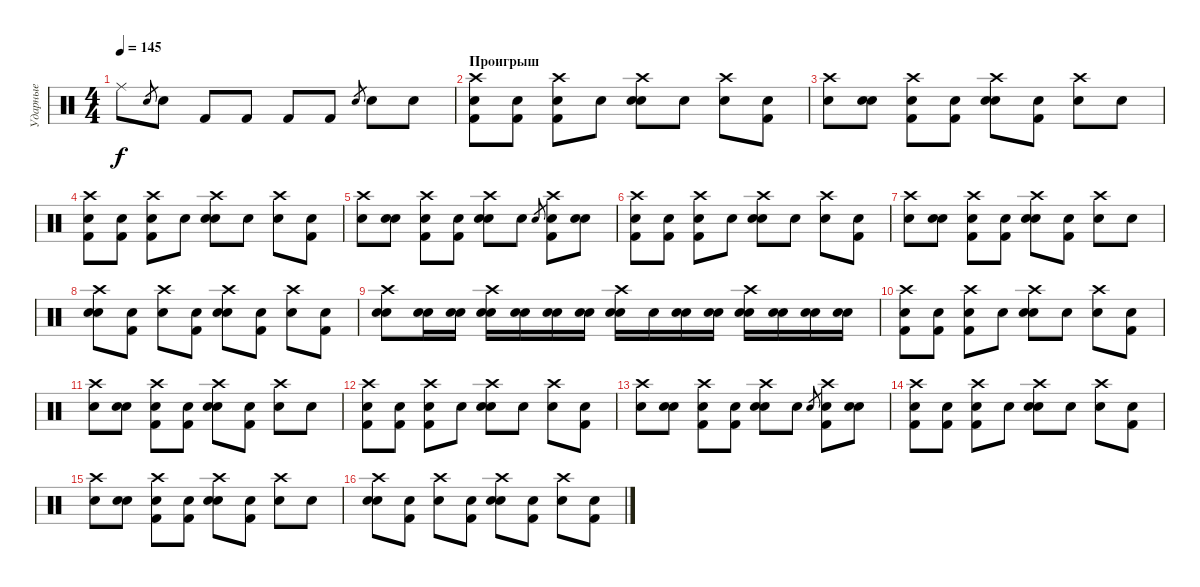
\track ("Ударные" "Ударные") {instrument percussion}
\staff {score}
\articulation defaults
\ts (4 4)
\tempo 145
\clef neutral
\ks c "Ride (middle)"{x}.8{dy f} "Snare (hit) 2".8{gr} "Snare (hit) 2".8 "Kick (hit) 2".8 "Kick (hit) 2".8 "Kick (hit) 2".8 "Kick (hit) 2".8 "Snare (hit) 2".8{gr} "Snare (hit) 2".8 "Snare (hit)"{x}.8
|
\section ("" "Проигрыш")
("Crash high (hit)" "Kick (hit) 2" "Snare (hit)"{x}).8 ("Kick (hit) 2" "Snare (hit)"{x}).8 ("Crash high (hit)" "Kick (hit) 2" "Snare (hit)"{x}).8 "Snare (hit)"{x}.8 ("Crash high (hit)" "Snare (hit) 2" "Snare (hit)"{x}).8 "Snare (hit)"{x}.8 ("Crash high (hit)" "Snare (hit)"{x}).8 ("Kick (hit) 2" "Snare (hit)"{x}).8 |
("Crash high (hit)" "Snare (hit)"{x}).8 ("Snare (hit) 2" "Snare (hit)"{x}).8 ("Crash high (hit)" "Kick (hit) 2" "Snare (hit)"{x}).8 ("Kick (hit) 2" "Snare (hit)"{x}).8 ("Crash high (hit)" "Snare (hit) 2" "Snare (hit)"{x}).8 ("Kick (hit) 2" "Snare (hit)"{x}).8 ("Crash high (hit)" "Snare (hit)"{x}).8 "Snare (hit)"{x}.8 |
("Crash high (hit)" "Kick (hit) 2" "Snare (hit)"{x}).8 ("Kick (hit) 2" "Snare (hit)"{x}).8 ("Crash high (hit)" "Kick (hit) 2" "Snare (hit)"{x}).8 "Snare (hit)"{x}.8 ("Crash high (hit)" "Snare (hit) 2" "Snare (hit)"{x}).8 "Snare (hit)"{x}.8 ("Crash high (hit)" "Snare (hit)"{x}).8 ("Kick (hit) 2" "Snare (hit)"{x}).8 |
("Crash high (hit)" "Snare (hit)"{x}).8 ("Snare (hit) 2" "Snare (hit)"{x}).8 ("Crash high (hit)" "Kick (hit) 2" "Snare (hit)"{x}).8 ("Kick (hit) 2" "Snare (hit)"{x}).8 ("Crash high (hit)" "Snare (hit) 2" "Snare (hit)"{x}).8 "Snare (hit)"{x}.8 "Snare (hit) 2".8{gr} ("Crash high (hit)" "Kick (hit) 2" "Snare (hit)"{x}).8 ("Snare (hit) 2" "Snare (hit)"{x}).8 |
("Crash high (hit)" "Kick (hit) 2" "Snare (hit)"{x}).8 ("Kick (hit) 2" "Snare (hit)"{x}).8 ("Crash high (hit)" "Kick (hit) 2" "Snare (hit)"{x}).8 "Snare (hit)"{x}.8 ("Crash high (hit)" "Snare (hit) 2" "Snare (hit)"{x}).8 "Snare (hit)"{x}.8 ("Crash high (hit)" "Snare (hit)"{x}).8 ("Kick (hit) 2" "Snare (hit)"{x}).8 |
("Crash high (hit)" "Snare (hit)"{x}).8 ("Snare (hit) 2" "Snare (hit)"{x}).8 ("Crash high (hit)" "Kick (hit) 2" "Snare (hit)"{x}).8 ("Kick (hit) 2" "Snare (hit)"{x}).8 ("Crash high (hit)" "Snare (hit) 2" "Snare (hit)"{x}).8 ("Kick (hit) 2" "Snare (hit)"{x}).8 ("Crash high (hit)" "Snare (hit)"{x}).8 "Snare (hit)"{x}.8 |
("Crash high (hit)" "Snare (hit) 2" "Snare (hit)"{x}).8 ("Kick (hit) 2" "Snare (hit)"{x}).8 ("Crash high (hit)" "Snare (hit)"{x}).8 ("Kick (hit) 2" "Snare (hit)"{x}).8 ("Crash high (hit)" "Snare (hit) 2" "Snare (hit)"{x}).8 ("Kick (hit) 2" "Snare (hit)"{x}).8 ("Crash high (hit)" "Snare (hit)"{x}).8 ("Kick (hit) 2" "Snare (hit)"{x}).8 |
("Crash high (hit)" "Snare (hit) 2" "Snare (hit)"{x}).8 ("Snare (hit) 2" "Snare (hit)"{x}).16 ("Snare (hit) 2" "Snare (hit)"{x}).16 ("Crash high (hit)" "Snare (hit) 2" "Snare (hit)"{x}).16 ("Snare (hit) 2" "Snare (hit)"{x}).16 ("Snare (hit) 2" "Snare (hit)"{x}).16 ("Snare (hit) 2" "Snare (hit)"{x}).16 ("Crash high (hit)" "Snare (hit) 2" "Snare (hit)"{x}).16 "Snare (hit)"{x}.16 ("Snare (hit) 2" "Snare (hit)"{x}).16 ("Snare (hit) 2" "Snare (hit)"{x}).16 ("Crash high (hit)" "Snare (hit) 2" "Snare (hit)"{x}).16 ("Snare (hit) 2" "Snare (hit)"{x}).16 ("Snare (hit) 2" "Snare (hit)"{x}).16 ("Snare (hit) 2" "Snare (hit)"{x}).16 |
("Crash high (hit)" "Kick (hit) 2" "Snare (hit)"{x}).8 ("Kick (hit) 2" "Snare (hit)"{x}).8 ("Crash high (hit)" "Kick (hit) 2" "Snare (hit)"{x}).8 "Snare (hit)"{x}.8 ("Crash high (hit)" "Snare (hit) 2" "Snare (hit)"{x}).8 "Snare (hit)"{x}.8 ("Crash high (hit)" "Snare (hit)"{x}).8 ("Kick (hit) 2" "Snare (hit)"{x}).8 |
("Crash high (hit)" "Snare (hit)"{x}).8 ("Snare (hit) 2" "Snare (hit)"{x}).8 ("Crash high (hit)" "Kick (hit) 2" "Snare (hit)"{x}).8 ("Kick (hit) 2" "Snare (hit)"{x}).8 ("Crash high (hit)" "Snare (hit) 2" "Snare (hit)"{x}).8 ("Kick (hit) 2" "Snare (hit)"{x}).8 ("Crash high (hit)" "Snare (hit)"{x}).8 "Snare (hit)"{x}.8 |
("Crash high (hit)" "Kick (hit) 2" "Snare (hit)"{x}).8 ("Kick (hit) 2" "Snare (hit)"{x}).8 ("Crash high (hit)" "Kick (hit) 2" "Snare (hit)"{x}).8 "Snare (hit)"{x}.8 ("Crash high (hit)" "Snare (hit) 2" "Snare (hit)"{x}).8 "Snare (hit)"{x}.8 ("Crash high (hit)" "Snare (hit)"{x}).8 ("Kick (hit) 2" "Snare (hit)"{x}).8 |
("Crash high (hit)" "Snare (hit)"{x}).8 ("Snare (hit) 2" "Snare (hit)"{x}).8 ("Crash high (hit)" "Kick (hit) 2" "Snare (hit)"{x}).8 ("Kick (hit) 2" "Snare (hit)"{x}).8 ("Crash high (hit)" "Snare (hit) 2" "Snare (hit)"{x}).8 "Snare (hit)"{x}.8 "Snare (hit) 2".8{gr} ("Crash high (hit)" "Kick (hit) 2" "Snare (hit)"{x}).8 ("Snare (hit) 2" "Snare (hit)"{x}).8 |
("Crash high (hit)" "Kick (hit) 2" "Snare (hit)"{x}).8 ("Kick (hit) 2" "Snare (hit)"{x}).8 ("Crash high (hit)" "Kick (hit) 2" "Snare (hit)"{x}).8 "Snare (hit)"{x}.8 ("Crash high (hit)" "Snare (hit) 2" "Snare (hit)"{x}).8 "Snare (hit)"{x}.8 ("Crash high (hit)" "Snare (hit)"{x}).8 ("Kick (hit) 2" "Snare (hit)"{x}).8 |
("Crash high (hit)" "Snare (hit)"{x}).8 ("Snare (hit) 2" "Snare (hit)"{x}).8 ("Crash high (hit)" "Kick (hit) 2" "Snare (hit)"{x}).8 ("Kick (hit) 2" "Snare (hit)"{x}).8 ("Crash high (hit)" "Snare (hit) 2" "Snare (hit)"{x}).8 ("Kick (hit) 2" "Snare (hit)"{x}).8 ("Crash high (hit)" "Snare (hit)"{x}).8 "Snare (hit)"{x}.8 |
("Crash high (hit)" "Snare (hit) 2" "Snare (hit)"{x}).8 ("Kick (hit) 2" "Snare (hit)"{x}).8 ("Crash high (hit)" "Snare (hit)"{x}).8 ("Kick (hit) 2" "Snare (hit)"{x}).8 ("Crash high (hit)" "Snare (hit) 2" "Snare (hit)"{x}).8 ("Kick (hit) 2" "Snare (hit)"{x}).8 ("Crash high (hit)" "Snare (hit)"{x}).8 ("Kick (hit) 2" "Snare (hit)"{x}).8
